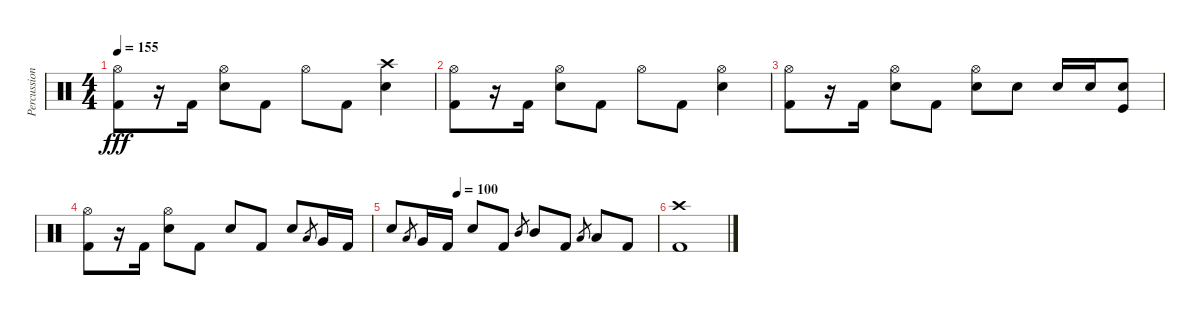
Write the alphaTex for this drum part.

\track ("Percussion" "Percussion") {instrument percussion}
\staff {score}
\articulation defaults
\ts (4 4)
\tempo 155
\clef neutral
\ks c
("Hi-Hat (open)" "Kick (hit) 2").8{dy fff} r.16 "Kick (hit) 2".16 ("Hi-Hat (open)" "Electric Snare (hit)").8 "Kick (hit) 2".8 "Hi-Hat (open)".8 "Kick (hit) 2".8 ("Crash high (hit)" "Electric Snare (hit)").4 |
("Hi-Hat (open)" "Kick (hit) 2").8 r.16 "Kick (hit) 2".16 ("Hi-Hat (open)" "Electric Snare (hit)").8 "Kick (hit) 2".8 "Hi-Hat (open)".8 "Kick (hit) 2".8 ("Hi-Hat (open)" "Electric Snare (hit)").4 |
("Hi-Hat (open)" "Kick (hit) 2").8 r.16 "Kick (hit) 2".16 ("Hi-Hat (open)" "Electric Snare (hit)").8 "Kick (hit) 2".8 ("Hi-Hat (open)" "Electric Snare (hit)").8 "Electric Snare (hit)".8 "Electric Snare (hit)".16 "Electric Snare (hit)".16 ("Electric Snare (hit)" "Kick (hit)").8 |
("Hi-Hat (open)" "Kick (hit) 2").8 r.16 "Kick (hit) 2".16 ("Hi-Hat (open)" "Electric Snare (hit)").8 "Kick (hit) 2".8 "Electric Snare (hit)".8 "Kick (hit) 2".8 "Electric Snare (hit)".8 "Low Tom (hit)".8{gr} "Very Low Tom (hit)".16 "Kick (hit) 2".16 |
\tempo (100 0.25)
"Electric Snare (hit)".8 "Low Tom (hit)".8{gr} "Very Low Tom (hit)".16 "Kick (hit) 2".16 "Electric Snare (hit)".8 "Kick (hit) 2".8 "Mid Tom (hit)".8{gr} "Mid Tom (hit)".8 "Kick (hit) 2".8 "Low Tom (hit)".8{gr} "Low Tom (hit)".8 "Kick (hit) 2".8 |
("Crash high (hit)" "Kick (hit) 2").1
